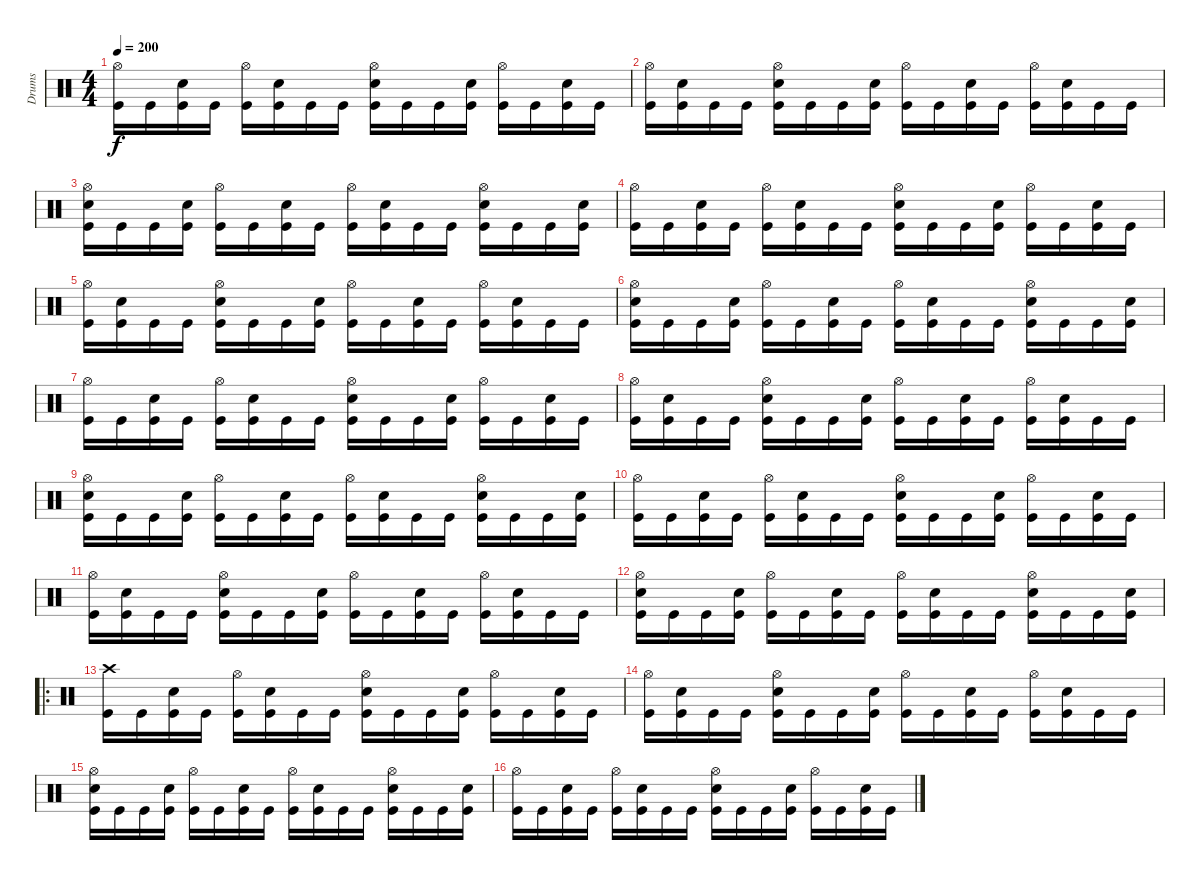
\track ("Drums" "Drums") {instrument percussion}
\staff {score}
\articulation defaults
\ts (4 4)
\tempo 200
\clef neutral
\ks c
("Hi-Hat (open)" "Kick (hit)").16{dy f} "Kick (hit)".16 ("Snare (hit) 2" "Kick (hit)").16 "Kick (hit)".16 ("Hi-Hat (open)" "Kick (hit)").16 ("Snare (hit) 2" "Kick (hit)").16 "Kick (hit)".16 "Kick (hit)".16 ("Hi-Hat (open)" "Snare (hit) 2" "Kick (hit)").16 "Kick (hit)".16 "Kick (hit)".16 ("Snare (hit) 2" "Kick (hit)").16 ("Hi-Hat (open)" "Kick (hit)").16 "Kick (hit)".16 ("Snare (hit) 2" "Kick (hit)").16 "Kick (hit)".16 |
("Hi-Hat (open)" "Kick (hit)").16 ("Snare (hit) 2" "Kick (hit)").16 "Kick (hit)".16 "Kick (hit)".16 ("Hi-Hat (open)" "Snare (hit) 2" "Kick (hit)").16 "Kick (hit)".16 "Kick (hit)".16 ("Snare (hit) 2" "Kick (hit)").16 ("Hi-Hat (open)" "Kick (hit)").16 "Kick (hit)".16 ("Snare (hit) 2" "Kick (hit)").16 "Kick (hit)".16 ("Hi-Hat (open)" "Kick (hit)").16 ("Snare (hit) 2" "Kick (hit)").16 "Kick (hit)".16 "Kick (hit)".16 |
("Hi-Hat (open)" "Snare (hit) 2" "Kick (hit)").16 "Kick (hit)".16 "Kick (hit)".16 ("Snare (hit) 2" "Kick (hit)").16 ("Hi-Hat (open)" "Kick (hit)").16 "Kick (hit)".16 ("Snare (hit) 2" "Kick (hit)").16 "Kick (hit)".16 ("Hi-Hat (open)" "Kick (hit)").16 ("Snare (hit) 2" "Kick (hit)").16 "Kick (hit)".16 "Kick (hit)".16 ("Hi-Hat (open)" "Snare (hit) 2" "Kick (hit)").16 "Kick (hit)".16 "Kick (hit)".16 ("Snare (hit) 2" "Kick (hit)").16 |
("Hi-Hat (open)" "Kick (hit)").16 "Kick (hit)".16 ("Snare (hit) 2" "Kick (hit)").16 "Kick (hit)".16 ("Hi-Hat (open)" "Kick (hit)").16 ("Snare (hit) 2" "Kick (hit)").16 "Kick (hit)".16 "Kick (hit)".16 ("Hi-Hat (open)" "Snare (hit) 2" "Kick (hit)").16 "Kick (hit)".16 "Kick (hit)".16 ("Snare (hit) 2" "Kick (hit)").16 ("Hi-Hat (open)" "Kick (hit)").16 "Kick (hit)".16 ("Snare (hit) 2" "Kick (hit)").16 "Kick (hit)".16 |
("Hi-Hat (open)" "Kick (hit)").16 ("Snare (hit) 2" "Kick (hit)").16 "Kick (hit)".16 "Kick (hit)".16 ("Hi-Hat (open)" "Snare (hit) 2" "Kick (hit)").16 "Kick (hit)".16 "Kick (hit)".16 ("Snare (hit) 2" "Kick (hit)").16 ("Hi-Hat (open)" "Kick (hit)").16 "Kick (hit)".16 ("Snare (hit) 2" "Kick (hit)").16 "Kick (hit)".16 ("Hi-Hat (open)" "Kick (hit)").16 ("Snare (hit) 2" "Kick (hit)").16 "Kick (hit)".16 "Kick (hit)".16 |
("Hi-Hat (open)" "Snare (hit) 2" "Kick (hit)").16 "Kick (hit)".16 "Kick (hit)".16 ("Snare (hit) 2" "Kick (hit)").16 ("Hi-Hat (open)" "Kick (hit)").16 "Kick (hit)".16 ("Snare (hit) 2" "Kick (hit)").16 "Kick (hit)".16 ("Hi-Hat (open)" "Kick (hit)").16 ("Snare (hit) 2" "Kick (hit)").16 "Kick (hit)".16 "Kick (hit)".16 ("Hi-Hat (open)" "Snare (hit) 2" "Kick (hit)").16 "Kick (hit)".16 "Kick (hit)".16 ("Snare (hit) 2" "Kick (hit)").16 |
("Hi-Hat (open)" "Kick (hit)").16 "Kick (hit)".16 ("Snare (hit) 2" "Kick (hit)").16 "Kick (hit)".16 ("Hi-Hat (open)" "Kick (hit)").16 ("Snare (hit) 2" "Kick (hit)").16 "Kick (hit)".16 "Kick (hit)".16 ("Hi-Hat (open)" "Snare (hit) 2" "Kick (hit)").16 "Kick (hit)".16 "Kick (hit)".16 ("Snare (hit) 2" "Kick (hit)").16 ("Hi-Hat (open)" "Kick (hit)").16 "Kick (hit)".16 ("Snare (hit) 2" "Kick (hit)").16 "Kick (hit)".16 |
("Hi-Hat (open)" "Kick (hit)").16 ("Snare (hit) 2" "Kick (hit)").16 "Kick (hit)".16 "Kick (hit)".16 ("Hi-Hat (open)" "Snare (hit) 2" "Kick (hit)").16 "Kick (hit)".16 "Kick (hit)".16 ("Snare (hit) 2" "Kick (hit)").16 ("Hi-Hat (open)" "Kick (hit)").16 "Kick (hit)".16 ("Snare (hit) 2" "Kick (hit)").16 "Kick (hit)".16 ("Hi-Hat (open)" "Kick (hit)").16 ("Snare (hit) 2" "Kick (hit)").16 "Kick (hit)".16 "Kick (hit)".16 |
("Hi-Hat (open)" "Snare (hit) 2" "Kick (hit)").16 "Kick (hit)".16 "Kick (hit)".16 ("Snare (hit) 2" "Kick (hit)").16 ("Hi-Hat (open)" "Kick (hit)").16 "Kick (hit)".16 ("Snare (hit) 2" "Kick (hit)").16 "Kick (hit)".16 ("Hi-Hat (open)" "Kick (hit)").16 ("Snare (hit) 2" "Kick (hit)").16 "Kick (hit)".16 "Kick (hit)".16 ("Hi-Hat (open)" "Snare (hit) 2" "Kick (hit)").16 "Kick (hit)".16 "Kick (hit)".16 ("Snare (hit) 2" "Kick (hit)").16 |
("Hi-Hat (open)" "Kick (hit)").16 "Kick (hit)".16 ("Snare (hit) 2" "Kick (hit)").16 "Kick (hit)".16 ("Hi-Hat (open)" "Kick (hit)").16 ("Snare (hit) 2" "Kick (hit)").16 "Kick (hit)".16 "Kick (hit)".16 ("Hi-Hat (open)" "Snare (hit) 2" "Kick (hit)").16 "Kick (hit)".16 "Kick (hit)".16 ("Snare (hit) 2" "Kick (hit)").16 ("Hi-Hat (open)" "Kick (hit)").16 "Kick (hit)".16 ("Snare (hit) 2" "Kick (hit)").16 "Kick (hit)".16 |
("Hi-Hat (open)" "Kick (hit)").16 ("Snare (hit) 2" "Kick (hit)").16 "Kick (hit)".16 "Kick (hit)".16 ("Hi-Hat (open)" "Snare (hit) 2" "Kick (hit)").16 "Kick (hit)".16 "Kick (hit)".16 ("Snare (hit) 2" "Kick (hit)").16 ("Hi-Hat (open)" "Kick (hit)").16 "Kick (hit)".16 ("Snare (hit) 2" "Kick (hit)").16 "Kick (hit)".16 ("Hi-Hat (open)" "Kick (hit)").16 ("Snare (hit) 2" "Kick (hit)").16 "Kick (hit)".16 "Kick (hit)".16 |
("Hi-Hat (open)" "Snare (hit) 2" "Kick (hit)").16 "Kick (hit)".16 "Kick (hit)".16 ("Snare (hit) 2" "Kick (hit)").16 ("Hi-Hat (open)" "Kick (hit)").16 "Kick (hit)".16 ("Snare (hit) 2" "Kick (hit)").16 "Kick (hit)".16 ("Hi-Hat (open)" "Kick (hit)").16 ("Snare (hit) 2" "Kick (hit)").16 "Kick (hit)".16 "Kick (hit)".16 ("Hi-Hat (open)" "Snare (hit) 2" "Kick (hit)").16 "Kick (hit)".16 "Kick (hit)".16 ("Snare (hit) 2" "Kick (hit)").16 |
\ro
("Crash high (hit)" "Kick (hit)").16 "Kick (hit)".16 ("Snare (hit) 2" "Kick (hit)").16 "Kick (hit)".16 ("Hi-Hat (open)" "Kick (hit)").16 ("Snare (hit) 2" "Kick (hit)").16 "Kick (hit)".16 "Kick (hit)".16 ("Hi-Hat (open)" "Snare (hit) 2" "Kick (hit)").16 "Kick (hit)".16 "Kick (hit)".16 ("Snare (hit) 2" "Kick (hit)").16 ("Hi-Hat (open)" "Kick (hit)").16 "Kick (hit)".16 ("Snare (hit) 2" "Kick (hit)").16 "Kick (hit)".16 |
("Hi-Hat (open)" "Kick (hit)").16 ("Snare (hit) 2" "Kick (hit)").16 "Kick (hit)".16 "Kick (hit)".16 ("Hi-Hat (open)" "Snare (hit) 2" "Kick (hit)").16 "Kick (hit)".16 "Kick (hit)".16 ("Snare (hit) 2" "Kick (hit)").16 ("Hi-Hat (open)" "Kick (hit)").16 "Kick (hit)".16 ("Snare (hit) 2" "Kick (hit)").16 "Kick (hit)".16 ("Hi-Hat (open)" "Kick (hit)").16 ("Snare (hit) 2" "Kick (hit)").16 "Kick (hit)".16 "Kick (hit)".16 |
("Hi-Hat (open)" "Snare (hit) 2" "Kick (hit)").16 "Kick (hit)".16 "Kick (hit)".16 ("Snare (hit) 2" "Kick (hit)").16 ("Hi-Hat (open)" "Kick (hit)").16 "Kick (hit)".16 ("Snare (hit) 2" "Kick (hit)").16 "Kick (hit)".16 ("Hi-Hat (open)" "Kick (hit)").16 ("Snare (hit) 2" "Kick (hit)").16 "Kick (hit)".16 "Kick (hit)".16 ("Hi-Hat (open)" "Snare (hit) 2" "Kick (hit)").16 "Kick (hit)".16 "Kick (hit)".16 ("Snare (hit) 2" "Kick (hit)").16 |
("Hi-Hat (open)" "Kick (hit)").16 "Kick (hit)".16 ("Snare (hit) 2" "Kick (hit)").16 "Kick (hit)".16 ("Hi-Hat (open)" "Kick (hit)").16 ("Snare (hit) 2" "Kick (hit)").16 "Kick (hit)".16 "Kick (hit)".16 ("Hi-Hat (open)" "Snare (hit) 2" "Kick (hit)").16 "Kick (hit)".16 "Kick (hit)".16 ("Snare (hit) 2" "Kick (hit)").16 ("Hi-Hat (open)" "Kick (hit)").16 "Kick (hit)".16 ("Snare (hit) 2" "Kick (hit)").16 "Kick (hit)".16
